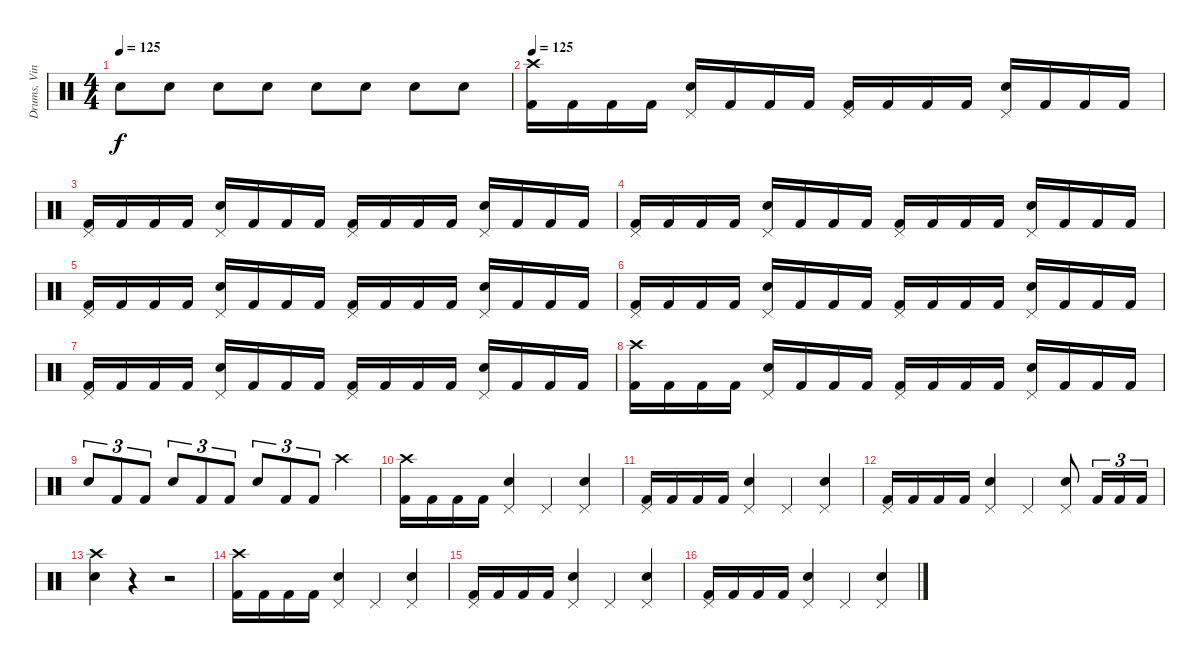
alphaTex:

\track ("Drums, Vinnie" "Drums, Vin") {instrument percussion}
\staff {score}
\articulation defaults
\ts (4 4)
\tempo 125
\clef neutral
\ks c "Electric Snare (hit)".8{dy f} "Electric Snare (hit)".8 "Electric Snare (hit)".8 "Electric Snare (hit)".8 "Electric Snare (hit)".8 "Electric Snare (hit)".8 "Electric Snare (hit)".8 "Electric Snare (hit)".8
|
\tempo 125
("Crash high (hit)" "Kick (hit) 2").16 "Kick (hit) 2".16 "Kick (hit) 2".16 "Kick (hit) 2".16 ("Pedal Hi-Hat (hit)" "Electric Snare (hit)").16 "Kick (hit) 2".16 "Kick (hit) 2".16 "Kick (hit) 2".16 ("Pedal Hi-Hat (hit)" "Kick (hit) 2").16 "Kick (hit) 2".16 "Kick (hit) 2".16 "Kick (hit) 2".16 ("Pedal Hi-Hat (hit)" "Electric Snare (hit)").16 "Kick (hit) 2".16 "Kick (hit) 2".16 "Kick (hit) 2".16 |
("Pedal Hi-Hat (hit)" "Kick (hit) 2").16 "Kick (hit) 2".16 "Kick (hit) 2".16 "Kick (hit) 2".16 ("Pedal Hi-Hat (hit)" "Electric Snare (hit)").16 "Kick (hit) 2".16 "Kick (hit) 2".16 "Kick (hit) 2".16 ("Pedal Hi-Hat (hit)" "Kick (hit) 2").16 "Kick (hit) 2".16 "Kick (hit) 2".16 "Kick (hit) 2".16 ("Pedal Hi-Hat (hit)" "Electric Snare (hit)").16 "Kick (hit) 2".16 "Kick (hit) 2".16 "Kick (hit) 2".16 |
("Pedal Hi-Hat (hit)" "Kick (hit) 2").16 "Kick (hit) 2".16 "Kick (hit) 2".16 "Kick (hit) 2".16 ("Pedal Hi-Hat (hit)" "Electric Snare (hit)").16 "Kick (hit) 2".16 "Kick (hit) 2".16 "Kick (hit) 2".16 ("Pedal Hi-Hat (hit)" "Kick (hit) 2").16 "Kick (hit) 2".16 "Kick (hit) 2".16 "Kick (hit) 2".16 ("Pedal Hi-Hat (hit)" "Electric Snare (hit)").16 "Kick (hit) 2".16 "Kick (hit) 2".16 "Kick (hit) 2".16 |
("Pedal Hi-Hat (hit)" "Kick (hit) 2").16 "Kick (hit) 2".16 "Kick (hit) 2".16 "Kick (hit) 2".16 ("Pedal Hi-Hat (hit)" "Electric Snare (hit)").16 "Kick (hit) 2".16 "Kick (hit) 2".16 "Kick (hit) 2".16 ("Pedal Hi-Hat (hit)" "Kick (hit) 2").16 "Kick (hit) 2".16 "Kick (hit) 2".16 "Kick (hit) 2".16 ("Pedal Hi-Hat (hit)" "Electric Snare (hit)").16 "Kick (hit) 2".16 "Kick (hit) 2".16 "Kick (hit) 2".16 |
("Pedal Hi-Hat (hit)" "Kick (hit) 2").16 "Kick (hit) 2".16 "Kick (hit) 2".16 "Kick (hit) 2".16 ("Pedal Hi-Hat (hit)" "Electric Snare (hit)").16 "Kick (hit) 2".16 "Kick (hit) 2".16 "Kick (hit) 2".16 ("Pedal Hi-Hat (hit)" "Kick (hit) 2").16 "Kick (hit) 2".16 "Kick (hit) 2".16 "Kick (hit) 2".16 ("Pedal Hi-Hat (hit)" "Electric Snare (hit)").16 "Kick (hit) 2".16 "Kick (hit) 2".16 "Kick (hit) 2".16 |
("Pedal Hi-Hat (hit)" "Kick (hit) 2").16 "Kick (hit) 2".16 "Kick (hit) 2".16 "Kick (hit) 2".16 ("Pedal Hi-Hat (hit)" "Electric Snare (hit)").16 "Kick (hit) 2".16 "Kick (hit) 2".16 "Kick (hit) 2".16 ("Pedal Hi-Hat (hit)" "Kick (hit) 2").16 "Kick (hit) 2".16 "Kick (hit) 2".16 "Kick (hit) 2".16 ("Pedal Hi-Hat (hit)" "Electric Snare (hit)").16 "Kick (hit) 2".16 "Kick (hit) 2".16 "Kick (hit) 2".16 |
("Crash high (hit)" "Kick (hit) 2").16 "Kick (hit) 2".16 "Kick (hit) 2".16 "Kick (hit) 2".16 ("Pedal Hi-Hat (hit)" "Electric Snare (hit)").16 "Kick (hit) 2".16 "Kick (hit) 2".16 "Kick (hit) 2".16 ("Pedal Hi-Hat (hit)" "Kick (hit) 2").16 "Kick (hit) 2".16 "Kick (hit) 2".16 "Kick (hit) 2".16 ("Pedal Hi-Hat (hit)" "Electric Snare (hit)").16 "Kick (hit) 2".16 "Kick (hit) 2".16 "Kick (hit) 2".16 |
"Electric Snare (hit)".8{tu (3 2)} "Kick (hit) 2".8{tu (3 2)} "Kick (hit) 2".8{tu (3 2)} "Electric Snare (hit)".8{tu (3 2)} "Kick (hit) 2".8{tu (3 2)} "Kick (hit) 2".8{tu (3 2)} "Electric Snare (hit)".8{tu (3 2)} "Kick (hit) 2".8{tu (3 2)} "Kick (hit) 2".8{tu (3 2)} "Crash high (hit)".4 |
("Crash high (hit)" "Kick (hit) 2").16 "Kick (hit) 2".16 "Kick (hit) 2".16 "Kick (hit) 2".16 ("Pedal Hi-Hat (hit)" "Electric Snare (hit)").4 "Pedal Hi-Hat (hit)".4 ("Pedal Hi-Hat (hit)" "Electric Snare (hit)").4 |
("Pedal Hi-Hat (hit)" "Kick (hit) 2").16 "Kick (hit) 2".16 "Kick (hit) 2".16 "Kick (hit) 2".16 ("Pedal Hi-Hat (hit)" "Electric Snare (hit)").4 "Pedal Hi-Hat (hit)".4 ("Pedal Hi-Hat (hit)" "Electric Snare (hit)").4 |
("Pedal Hi-Hat (hit)" "Kick (hit) 2").16 "Kick (hit) 2".16 "Kick (hit) 2".16 "Kick (hit) 2".16 ("Pedal Hi-Hat (hit)" "Electric Snare (hit)").4 "Pedal Hi-Hat (hit)".4 ("Pedal Hi-Hat (hit)" "Electric Snare (hit)").8 "Kick (hit) 2".16{tu (3 2)} "Kick (hit) 2".16{tu (3 2)} "Kick (hit) 2".16{tu (3 2)} |
("Crash high (hit)" "Electric Snare (hit)").4 r.4 r.2 |
("Crash high (hit)" "Kick (hit) 2").16 "Kick (hit) 2".16 "Kick (hit) 2".16 "Kick (hit) 2".16 ("Pedal Hi-Hat (hit)" "Electric Snare (hit)").4 "Pedal Hi-Hat (hit)".4 ("Pedal Hi-Hat (hit)" "Electric Snare (hit)").4 |
("Pedal Hi-Hat (hit)" "Kick (hit) 2").16 "Kick (hit) 2".16 "Kick (hit) 2".16 "Kick (hit) 2".16 ("Pedal Hi-Hat (hit)" "Electric Snare (hit)").4 "Pedal Hi-Hat (hit)".4 ("Pedal Hi-Hat (hit)" "Electric Snare (hit)").4 |
("Pedal Hi-Hat (hit)" "Kick (hit) 2").16 "Kick (hit) 2".16 "Kick (hit) 2".16 "Kick (hit) 2".16 ("Pedal Hi-Hat (hit)" "Electric Snare (hit)").4 "Pedal Hi-Hat (hit)".4 ("Pedal Hi-Hat (hit)" "Electric Snare (hit)").4
